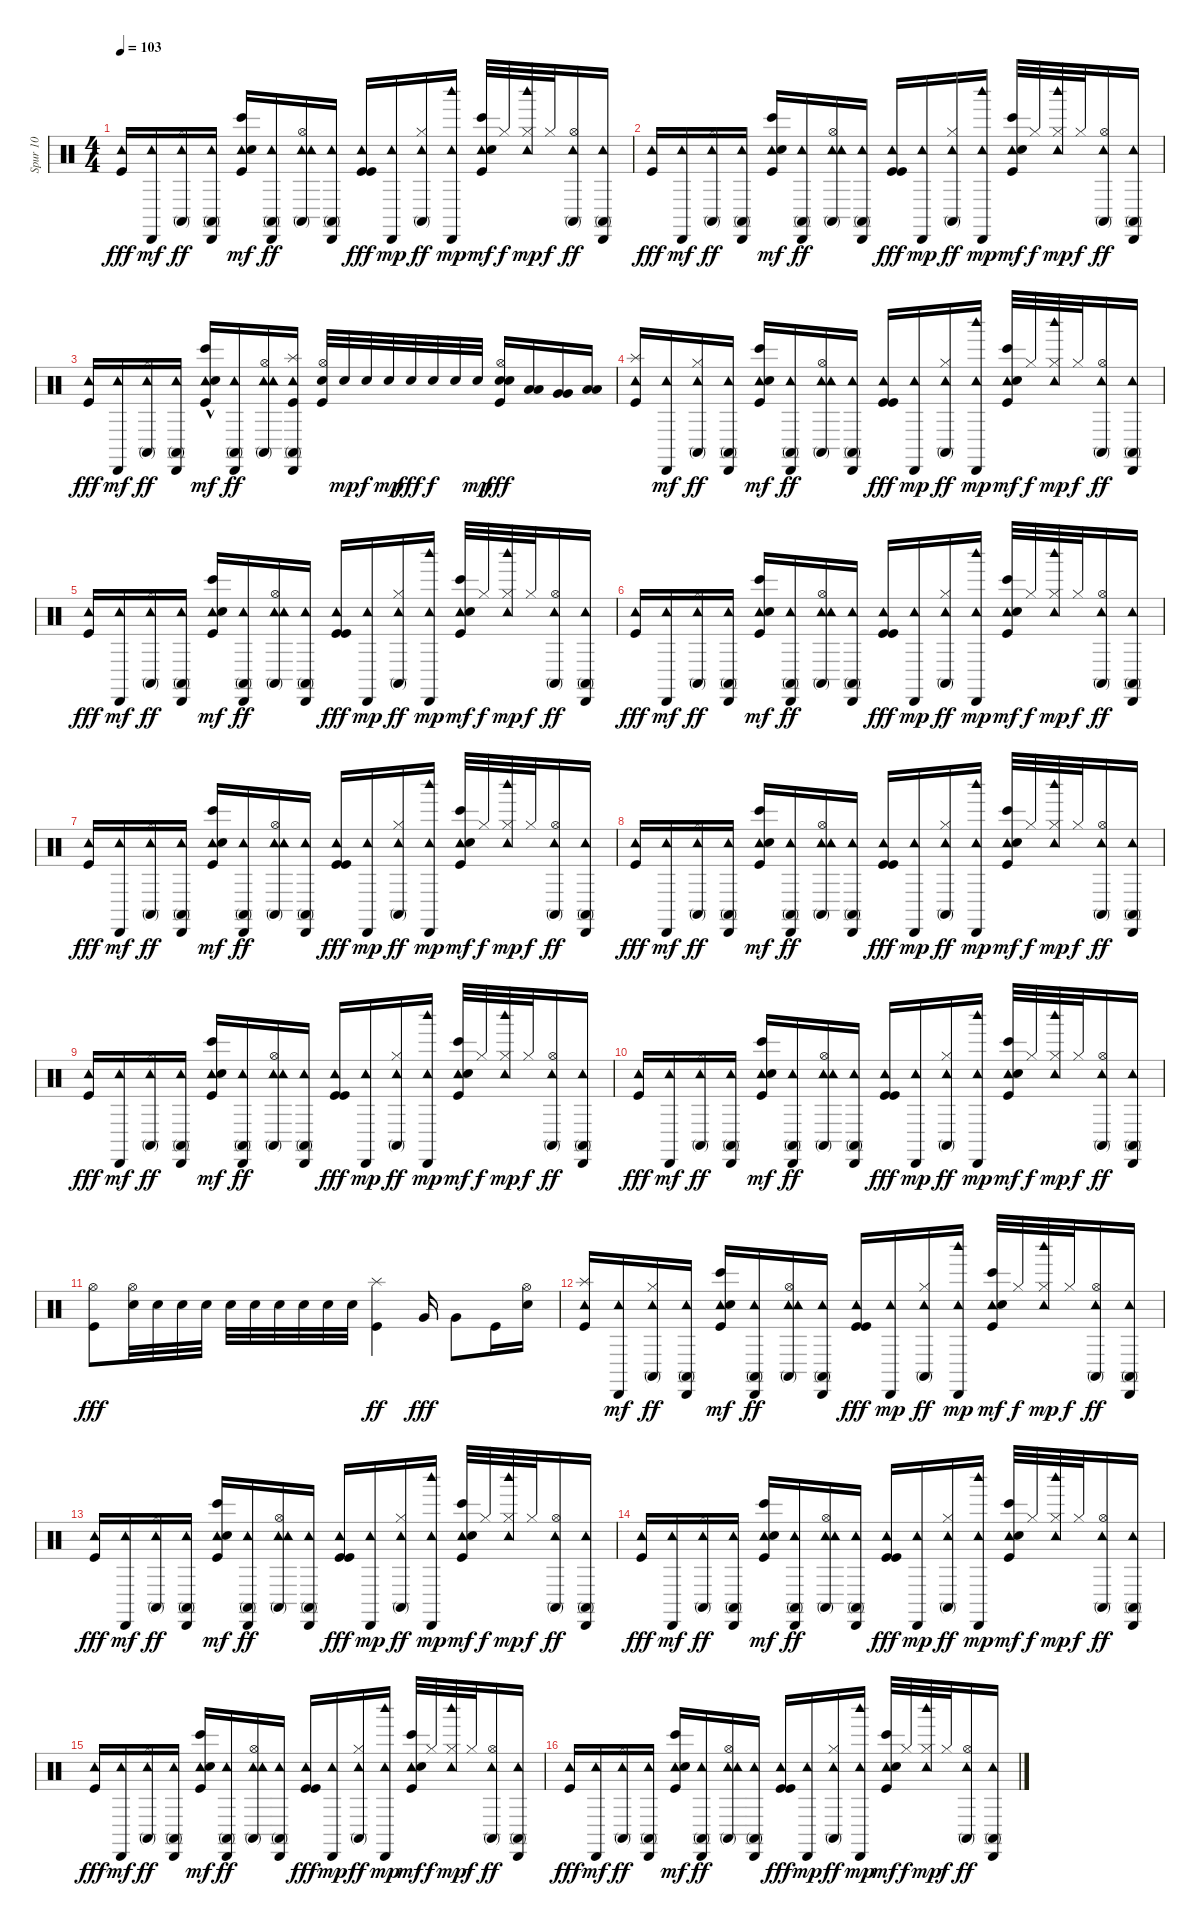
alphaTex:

\track ("Spur 10" "Spur 10") {instrument percussion}
\staff {score}
\articulation defaults
\ts (4 4)
\tempo 103
\clef neutral
\ks c
("Tambourine (hit)" "Kick (hit)").16{dy fff} ("Tambourine (hit)" "Cabasa (hit)").16{dy mf} ("Tambourine (hit)" "Hi-Hat (closed)" "Conga high (mute)").16{dy ff} ("Tambourine (hit)" "Cabasa (hit)" "Conga high (mute)").16 ("Tambourine (hit)" "Kick (hit)" "Electric Snare (hit)" "Bongo High (hit)").16{dy mf} ("Tambourine (hit)" "Cabasa (hit)" "Conga high (mute)").16{dy ff} ("Tambourine (hit)" "Hi-Hat (open)" "Tambourine (hit)" "Conga high (mute)").16 ("Tambourine (hit)" "Cabasa (hit)" "Conga high (mute)").16 ("Tambourine (hit)" "Kick (hit)" "Kick (hit)").16{dy fff} ("Cabasa (hit)" "Tambourine (hit)").16{dy mp} ("Hi-Hat (closed)" "Tambourine (hit)" "Conga high (mute)").16{dy ff} ("Cabasa (hit)" "Tambourine (hit)" "Woodblock high (hit)").16{dy mp} ("Tambourine (hit)" "Kick (hit)" "Electric Snare (hit)" "Bongo High (hit)").32{dy mf} "Hi-Hat (closed)".32{dy f} ("Hi-Hat (closed)" "Tambourine (hit)" "Woodblock high (hit)").32{dy mp} "Hi-Hat (closed)".32{dy f} ("Hi-Hat (open)" "Tambourine (hit)" "Conga high (mute)").16{dy ff} ("Tambourine (hit)" "Cabasa (hit)" "Conga high (mute)").16 |
("Tambourine (hit)" "Kick (hit)").16{dy fff} ("Tambourine (hit)" "Cabasa (hit)").16{dy mf} ("Tambourine (hit)" "Hi-Hat (closed)" "Conga high (mute)").16{dy ff} ("Tambourine (hit)" "Cabasa (hit)" "Conga high (mute)").16 ("Tambourine (hit)" "Kick (hit)" "Electric Snare (hit)" "Bongo High (hit)").16{dy mf} ("Tambourine (hit)" "Cabasa (hit)" "Conga high (mute)").16{dy ff} ("Tambourine (hit)" "Hi-Hat (open)" "Tambourine (hit)" "Conga high (mute)").16 ("Tambourine (hit)" "Cabasa (hit)" "Conga high (mute)").16 ("Tambourine (hit)" "Kick (hit)" "Kick (hit)").16{dy fff} ("Cabasa (hit)" "Tambourine (hit)").16{dy mp} ("Hi-Hat (closed)" "Tambourine (hit)" "Conga high (mute)").16{dy ff} ("Cabasa (hit)" "Tambourine (hit)" "Woodblock high (hit)").16{dy mp} ("Tambourine (hit)" "Kick (hit)" "Electric Snare (hit)" "Bongo High (hit)").32{dy mf} "Hi-Hat (closed)".32{dy f} ("Hi-Hat (closed)" "Tambourine (hit)" "Woodblock high (hit)").32{dy mp} "Hi-Hat (closed)".32{dy f} ("Hi-Hat (open)" "Tambourine (hit)" "Conga high (mute)").16{dy ff} ("Tambourine (hit)" "Cabasa (hit)" "Conga high (mute)").16 |
("Tambourine (hit)" "Kick (hit)").16{dy fff} ("Tambourine (hit)" "Cabasa (hit)").16{dy mf} ("Tambourine (hit)" "Hi-Hat (closed)" "Conga high (mute)").16{dy ff} ("Tambourine (hit)" "Cabasa (hit)" "Conga high (mute)").16 ("Tambourine (hit)" "Kick (hit)"{hac} "Electric Snare (hit)" "Bongo High (hit)").16{dy mf} ("Tambourine (hit)" "Cabasa (hit)" "Conga high (mute)").16{dy ff} ("Tambourine (hit)" "Hi-Hat (open)" "Tambourine (hit)" "Conga high (mute)").16 ("Tambourine (hit)" "Cabasa (hit)" "Conga high (mute)" "Kick (hit)" "Splash (hit)").16 ("Snare (hit) 2" "Kick (hit)" "Hi-Hat (open)").32 "Snare (hit) 2".32{dy mp} "Snare (hit) 2".32{dy f} "Snare (hit) 2".32{dy mp} "Snare (hit) 2".32{dy fff} "Snare (hit) 2".32{dy f} "Snare (hit) 2".32 "Snare (hit) 2".32{dy mp} ("Snare (hit) 2" "Snare (hit) 2" "Kick (hit)" "Hi-Hat (open)").16{dy fff} ("Low Tom (hit)" "Low Tom (hit)").16 ("Very Low Tom (hit)" "Very Low Tom (hit)").16 ("Low Floor Tom (hit)" "Low Floor Tom (hit)").16 |
("Splash (hit)" "Tambourine (hit)" "Kick (hit)").16 ("Tambourine (hit)" "Cabasa (hit)").16{dy mf} ("Tambourine (hit)" "Hi-Hat (closed)" "Conga high (mute)").16{dy ff} ("Tambourine (hit)" "Cabasa (hit)" "Conga high (mute)").16 ("Tambourine (hit)" "Kick (hit)" "Electric Snare (hit)" "Bongo High (hit)").16{dy mf} ("Tambourine (hit)" "Cabasa (hit)" "Conga high (mute)").16{dy ff} ("Tambourine (hit)" "Hi-Hat (open)" "Tambourine (hit)" "Conga high (mute)").16 ("Tambourine (hit)" "Cabasa (hit)" "Conga high (mute)").16 ("Tambourine (hit)" "Kick (hit)" "Kick (hit)").16{dy fff} ("Cabasa (hit)" "Tambourine (hit)").16{dy mp} ("Hi-Hat (closed)" "Tambourine (hit)" "Conga high (mute)").16{dy ff} ("Cabasa (hit)" "Tambourine (hit)" "Woodblock high (hit)").16{dy mp} ("Tambourine (hit)" "Kick (hit)" "Electric Snare (hit)" "Bongo High (hit)").32{dy mf} "Hi-Hat (closed)".32{dy f} ("Hi-Hat (closed)" "Tambourine (hit)" "Woodblock high (hit)").32{dy mp} "Hi-Hat (closed)".32{dy f} ("Hi-Hat (open)" "Tambourine (hit)" "Conga high (mute)").16{dy ff} ("Tambourine (hit)" "Cabasa (hit)" "Conga high (mute)").16 |
("Tambourine (hit)" "Kick (hit)").16{dy fff} ("Tambourine (hit)" "Cabasa (hit)").16{dy mf} ("Tambourine (hit)" "Hi-Hat (closed)" "Conga high (mute)").16{dy ff} ("Tambourine (hit)" "Cabasa (hit)" "Conga high (mute)").16 ("Tambourine (hit)" "Kick (hit)" "Electric Snare (hit)" "Bongo High (hit)").16{dy mf} ("Tambourine (hit)" "Cabasa (hit)" "Conga high (mute)").16{dy ff} ("Tambourine (hit)" "Hi-Hat (open)" "Tambourine (hit)" "Conga high (mute)").16 ("Tambourine (hit)" "Cabasa (hit)" "Conga high (mute)").16 ("Tambourine (hit)" "Kick (hit)" "Kick (hit)").16{dy fff} ("Cabasa (hit)" "Tambourine (hit)").16{dy mp} ("Hi-Hat (closed)" "Tambourine (hit)" "Conga high (mute)").16{dy ff} ("Cabasa (hit)" "Tambourine (hit)" "Woodblock high (hit)").16{dy mp} ("Tambourine (hit)" "Kick (hit)" "Electric Snare (hit)" "Bongo High (hit)").32{dy mf} "Hi-Hat (closed)".32{dy f} ("Hi-Hat (closed)" "Tambourine (hit)" "Woodblock high (hit)").32{dy mp} "Hi-Hat (closed)".32{dy f} ("Hi-Hat (open)" "Tambourine (hit)" "Conga high (mute)").16{dy ff} ("Tambourine (hit)" "Cabasa (hit)" "Conga high (mute)").16 |
("Tambourine (hit)" "Kick (hit)").16{dy fff} ("Tambourine (hit)" "Cabasa (hit)").16{dy mf} ("Tambourine (hit)" "Hi-Hat (closed)" "Conga high (mute)").16{dy ff} ("Tambourine (hit)" "Cabasa (hit)" "Conga high (mute)").16 ("Tambourine (hit)" "Kick (hit)" "Electric Snare (hit)" "Bongo High (hit)").16{dy mf} ("Tambourine (hit)" "Cabasa (hit)" "Conga high (mute)").16{dy ff} ("Tambourine (hit)" "Hi-Hat (open)" "Tambourine (hit)" "Conga high (mute)").16 ("Tambourine (hit)" "Cabasa (hit)" "Conga high (mute)").16 ("Tambourine (hit)" "Kick (hit)" "Kick (hit)").16{dy fff} ("Cabasa (hit)" "Tambourine (hit)").16{dy mp} ("Hi-Hat (closed)" "Tambourine (hit)" "Conga high (mute)").16{dy ff} ("Cabasa (hit)" "Tambourine (hit)" "Woodblock high (hit)").16{dy mp} ("Tambourine (hit)" "Kick (hit)" "Electric Snare (hit)" "Bongo High (hit)").32{dy mf} "Hi-Hat (closed)".32{dy f} ("Hi-Hat (closed)" "Tambourine (hit)" "Woodblock high (hit)").32{dy mp} "Hi-Hat (closed)".32{dy f} ("Hi-Hat (open)" "Tambourine (hit)" "Conga high (mute)").16{dy ff} ("Tambourine (hit)" "Cabasa (hit)" "Conga high (mute)").16 |
("Tambourine (hit)" "Kick (hit)").16{dy fff} ("Tambourine (hit)" "Cabasa (hit)").16{dy mf} ("Tambourine (hit)" "Hi-Hat (closed)" "Conga high (mute)").16{dy ff} ("Tambourine (hit)" "Cabasa (hit)" "Conga high (mute)").16 ("Tambourine (hit)" "Kick (hit)" "Electric Snare (hit)" "Bongo High (hit)").16{dy mf} ("Tambourine (hit)" "Cabasa (hit)" "Conga high (mute)").16{dy ff} ("Tambourine (hit)" "Hi-Hat (open)" "Tambourine (hit)" "Conga high (mute)").16 ("Tambourine (hit)" "Cabasa (hit)" "Conga high (mute)").16 ("Tambourine (hit)" "Kick (hit)" "Kick (hit)").16{dy fff} ("Cabasa (hit)" "Tambourine (hit)").16{dy mp} ("Hi-Hat (closed)" "Tambourine (hit)" "Conga high (mute)").16{dy ff} ("Cabasa (hit)" "Tambourine (hit)" "Woodblock high (hit)").16{dy mp} ("Tambourine (hit)" "Kick (hit)" "Electric Snare (hit)" "Bongo High (hit)").32{dy mf} "Hi-Hat (closed)".32{dy f} ("Hi-Hat (closed)" "Tambourine (hit)" "Woodblock high (hit)").32{dy mp} "Hi-Hat (closed)".32{dy f} ("Hi-Hat (open)" "Tambourine (hit)" "Conga high (mute)").16{dy ff} ("Tambourine (hit)" "Cabasa (hit)" "Conga high (mute)").16 |
("Tambourine (hit)" "Kick (hit)").16{dy fff} ("Tambourine (hit)" "Cabasa (hit)").16{dy mf} ("Tambourine (hit)" "Hi-Hat (closed)" "Conga high (mute)").16{dy ff} ("Tambourine (hit)" "Cabasa (hit)" "Conga high (mute)").16 ("Tambourine (hit)" "Kick (hit)" "Electric Snare (hit)" "Bongo High (hit)").16{dy mf} ("Tambourine (hit)" "Cabasa (hit)" "Conga high (mute)").16{dy ff} ("Tambourine (hit)" "Hi-Hat (open)" "Tambourine (hit)" "Conga high (mute)").16 ("Tambourine (hit)" "Cabasa (hit)" "Conga high (mute)").16 ("Tambourine (hit)" "Kick (hit)" "Kick (hit)").16{dy fff} ("Cabasa (hit)" "Tambourine (hit)").16{dy mp} ("Hi-Hat (closed)" "Tambourine (hit)" "Conga high (mute)").16{dy ff} ("Cabasa (hit)" "Tambourine (hit)" "Woodblock high (hit)").16{dy mp} ("Tambourine (hit)" "Kick (hit)" "Electric Snare (hit)" "Bongo High (hit)").32{dy mf} "Hi-Hat (closed)".32{dy f} ("Hi-Hat (closed)" "Tambourine (hit)" "Woodblock high (hit)").32{dy mp} "Hi-Hat (closed)".32{dy f} ("Hi-Hat (open)" "Tambourine (hit)" "Conga high (mute)").16{dy ff} ("Tambourine (hit)" "Cabasa (hit)" "Conga high (mute)").16 |
("Tambourine (hit)" "Kick (hit)").16{dy fff} ("Tambourine (hit)" "Cabasa (hit)").16{dy mf} ("Tambourine (hit)" "Hi-Hat (closed)" "Conga high (mute)").16{dy ff} ("Tambourine (hit)" "Cabasa (hit)" "Conga high (mute)").16 ("Tambourine (hit)" "Kick (hit)" "Electric Snare (hit)" "Bongo High (hit)").16{dy mf} ("Tambourine (hit)" "Cabasa (hit)" "Conga high (mute)").16{dy ff} ("Tambourine (hit)" "Hi-Hat (open)" "Tambourine (hit)" "Conga high (mute)").16 ("Tambourine (hit)" "Cabasa (hit)" "Conga high (mute)").16 ("Tambourine (hit)" "Kick (hit)" "Kick (hit)").16{dy fff} ("Cabasa (hit)" "Tambourine (hit)").16{dy mp} ("Hi-Hat (closed)" "Tambourine (hit)" "Conga high (mute)").16{dy ff} ("Cabasa (hit)" "Tambourine (hit)" "Woodblock high (hit)").16{dy mp} ("Tambourine (hit)" "Kick (hit)" "Electric Snare (hit)" "Bongo High (hit)").32{dy mf} "Hi-Hat (closed)".32{dy f} ("Hi-Hat (closed)" "Tambourine (hit)" "Woodblock high (hit)").32{dy mp} "Hi-Hat (closed)".32{dy f} ("Hi-Hat (open)" "Tambourine (hit)" "Conga high (mute)").16{dy ff} ("Tambourine (hit)" "Cabasa (hit)" "Conga high (mute)").16 |
("Tambourine (hit)" "Kick (hit)").16{dy fff} ("Tambourine (hit)" "Cabasa (hit)").16{dy mf} ("Tambourine (hit)" "Hi-Hat (closed)" "Conga high (mute)").16{dy ff} ("Tambourine (hit)" "Cabasa (hit)" "Conga high (mute)").16 ("Tambourine (hit)" "Kick (hit)" "Electric Snare (hit)" "Bongo High (hit)").16{dy mf} ("Tambourine (hit)" "Cabasa (hit)" "Conga high (mute)").16{dy ff} ("Tambourine (hit)" "Hi-Hat (open)" "Tambourine (hit)" "Conga high (mute)").16 ("Tambourine (hit)" "Cabasa (hit)" "Conga high (mute)").16 ("Tambourine (hit)" "Kick (hit)" "Kick (hit)").16{dy fff} ("Cabasa (hit)" "Tambourine (hit)").16{dy mp} ("Hi-Hat (closed)" "Tambourine (hit)" "Conga high (mute)").16{dy ff} ("Cabasa (hit)" "Tambourine (hit)" "Woodblock high (hit)").16{dy mp} ("Tambourine (hit)" "Kick (hit)" "Electric Snare (hit)" "Bongo High (hit)").32{dy mf} "Hi-Hat (closed)".32{dy f} ("Hi-Hat (closed)" "Tambourine (hit)" "Woodblock high (hit)").32{dy mp} "Hi-Hat (closed)".32{dy f} ("Hi-Hat (open)" "Tambourine (hit)" "Conga high (mute)").16{dy ff} ("Tambourine (hit)" "Cabasa (hit)" "Conga high (mute)").16 |
("Kick (hit)" "Hi-Hat (open)").8{dy fff} ("Hi-Hat (open)" "Electric Snare (hit)").32 "Electric Snare (hit)".32 "Electric Snare (hit)".32 "Electric Snare (hit)".32 "Electric Snare (hit)".32 "Electric Snare (hit)".32 "Electric Snare (hit)".32 "Electric Snare (hit)".32 "Electric Snare (hit)".32 "Electric Snare (hit)".32 ("Kick (hit)" "Splash (hit)").4{dy ff} "Very Low Tom (hit)".16{dy fff} "Very Low Tom (hit)".8 "Kick (hit)".16 ("Electric Snare (hit)" "Hi-Hat (open)").16 |
("Splash (hit)" "Tambourine (hit)" "Kick (hit)").16 ("Tambourine (hit)" "Cabasa (hit)").16{dy mf} ("Tambourine (hit)" "Hi-Hat (closed)" "Conga high (mute)").16{dy ff} ("Tambourine (hit)" "Cabasa (hit)" "Conga high (mute)").16 ("Tambourine (hit)" "Kick (hit)" "Electric Snare (hit)" "Bongo High (hit)").16{dy mf} ("Tambourine (hit)" "Cabasa (hit)" "Conga high (mute)").16{dy ff} ("Tambourine (hit)" "Hi-Hat (open)" "Tambourine (hit)" "Conga high (mute)").16 ("Tambourine (hit)" "Cabasa (hit)" "Conga high (mute)").16 ("Tambourine (hit)" "Kick (hit)" "Kick (hit)").16{dy fff} ("Cabasa (hit)" "Tambourine (hit)").16{dy mp} ("Hi-Hat (closed)" "Tambourine (hit)" "Conga high (mute)").16{dy ff} ("Cabasa (hit)" "Tambourine (hit)" "Woodblock high (hit)").16{dy mp} ("Tambourine (hit)" "Kick (hit)" "Electric Snare (hit)" "Bongo High (hit)").32{dy mf} "Hi-Hat (closed)".32{dy f} ("Hi-Hat (closed)" "Tambourine (hit)" "Woodblock high (hit)").32{dy mp} "Hi-Hat (closed)".32{dy f} ("Hi-Hat (open)" "Tambourine (hit)" "Conga high (mute)").16{dy ff} ("Tambourine (hit)" "Cabasa (hit)" "Conga high (mute)").16 |
("Tambourine (hit)" "Kick (hit)").16{dy fff} ("Tambourine (hit)" "Cabasa (hit)").16{dy mf} ("Tambourine (hit)" "Hi-Hat (closed)" "Conga high (mute)").16{dy ff} ("Tambourine (hit)" "Cabasa (hit)" "Conga high (mute)").16 ("Tambourine (hit)" "Kick (hit)" "Electric Snare (hit)" "Bongo High (hit)").16{dy mf} ("Tambourine (hit)" "Cabasa (hit)" "Conga high (mute)").16{dy ff} ("Tambourine (hit)" "Hi-Hat (open)" "Tambourine (hit)" "Conga high (mute)").16 ("Tambourine (hit)" "Cabasa (hit)" "Conga high (mute)").16 ("Tambourine (hit)" "Kick (hit)" "Kick (hit)").16{dy fff} ("Cabasa (hit)" "Tambourine (hit)").16{dy mp} ("Hi-Hat (closed)" "Tambourine (hit)" "Conga high (mute)").16{dy ff} ("Cabasa (hit)" "Tambourine (hit)" "Woodblock high (hit)").16{dy mp} ("Tambourine (hit)" "Kick (hit)" "Electric Snare (hit)" "Bongo High (hit)").32{dy mf} "Hi-Hat (closed)".32{dy f} ("Hi-Hat (closed)" "Tambourine (hit)" "Woodblock high (hit)").32{dy mp} "Hi-Hat (closed)".32{dy f} ("Hi-Hat (open)" "Tambourine (hit)" "Conga high (mute)").16{dy ff} ("Tambourine (hit)" "Cabasa (hit)" "Conga high (mute)").16 |
("Tambourine (hit)" "Kick (hit)").16{dy fff} ("Tambourine (hit)" "Cabasa (hit)").16{dy mf} ("Tambourine (hit)" "Hi-Hat (closed)" "Conga high (mute)").16{dy ff} ("Tambourine (hit)" "Cabasa (hit)" "Conga high (mute)").16 ("Tambourine (hit)" "Kick (hit)" "Electric Snare (hit)" "Bongo High (hit)").16{dy mf} ("Tambourine (hit)" "Cabasa (hit)" "Conga high (mute)").16{dy ff} ("Tambourine (hit)" "Hi-Hat (open)" "Tambourine (hit)" "Conga high (mute)").16 ("Tambourine (hit)" "Cabasa (hit)" "Conga high (mute)").16 ("Tambourine (hit)" "Kick (hit)" "Kick (hit)").16{dy fff} ("Cabasa (hit)" "Tambourine (hit)").16{dy mp} ("Hi-Hat (closed)" "Tambourine (hit)" "Conga high (mute)").16{dy ff} ("Cabasa (hit)" "Tambourine (hit)" "Woodblock high (hit)").16{dy mp} ("Tambourine (hit)" "Kick (hit)" "Electric Snare (hit)" "Bongo High (hit)").32{dy mf} "Hi-Hat (closed)".32{dy f} ("Hi-Hat (closed)" "Tambourine (hit)" "Woodblock high (hit)").32{dy mp} "Hi-Hat (closed)".32{dy f} ("Hi-Hat (open)" "Tambourine (hit)" "Conga high (mute)").16{dy ff} ("Tambourine (hit)" "Cabasa (hit)" "Conga high (mute)").16 |
("Tambourine (hit)" "Kick (hit)").16{dy fff} ("Tambourine (hit)" "Cabasa (hit)").16{dy mf} ("Tambourine (hit)" "Hi-Hat (closed)" "Conga high (mute)").16{dy ff} ("Tambourine (hit)" "Cabasa (hit)" "Conga high (mute)").16 ("Tambourine (hit)" "Kick (hit)" "Electric Snare (hit)" "Bongo High (hit)").16{dy mf} ("Tambourine (hit)" "Cabasa (hit)" "Conga high (mute)").16{dy ff} ("Tambourine (hit)" "Hi-Hat (open)" "Tambourine (hit)" "Conga high (mute)").16 ("Tambourine (hit)" "Cabasa (hit)" "Conga high (mute)").16 ("Tambourine (hit)" "Kick (hit)" "Kick (hit)").16{dy fff} ("Cabasa (hit)" "Tambourine (hit)").16{dy mp} ("Hi-Hat (closed)" "Tambourine (hit)" "Conga high (mute)").16{dy ff} ("Cabasa (hit)" "Tambourine (hit)" "Woodblock high (hit)").16{dy mp} ("Tambourine (hit)" "Kick (hit)" "Electric Snare (hit)" "Bongo High (hit)").32{dy mf} "Hi-Hat (closed)".32{dy f} ("Hi-Hat (closed)" "Tambourine (hit)" "Woodblock high (hit)").32{dy mp} "Hi-Hat (closed)".32{dy f} ("Hi-Hat (open)" "Tambourine (hit)" "Conga high (mute)").16{dy ff} ("Tambourine (hit)" "Cabasa (hit)" "Conga high (mute)").16 |
("Tambourine (hit)" "Kick (hit)").16{dy fff} ("Tambourine (hit)" "Cabasa (hit)").16{dy mf} ("Tambourine (hit)" "Hi-Hat (closed)" "Conga high (mute)").16{dy ff} ("Tambourine (hit)" "Cabasa (hit)" "Conga high (mute)").16 ("Tambourine (hit)" "Kick (hit)" "Electric Snare (hit)" "Bongo High (hit)").16{dy mf} ("Tambourine (hit)" "Cabasa (hit)" "Conga high (mute)").16{dy ff} ("Tambourine (hit)" "Hi-Hat (open)" "Tambourine (hit)" "Conga high (mute)").16 ("Tambourine (hit)" "Cabasa (hit)" "Conga high (mute)").16 ("Tambourine (hit)" "Kick (hit)" "Kick (hit)").16{dy fff} ("Cabasa (hit)" "Tambourine (hit)").16{dy mp} ("Hi-Hat (closed)" "Tambourine (hit)" "Conga high (mute)").16{dy ff} ("Cabasa (hit)" "Tambourine (hit)" "Woodblock high (hit)").16{dy mp} ("Tambourine (hit)" "Kick (hit)" "Electric Snare (hit)" "Bongo High (hit)").32{dy mf} "Hi-Hat (closed)".32{dy f} ("Hi-Hat (closed)" "Tambourine (hit)" "Woodblock high (hit)").32{dy mp} "Hi-Hat (closed)".32{dy f} ("Hi-Hat (open)" "Tambourine (hit)" "Conga high (mute)").16{dy ff} ("Tambourine (hit)" "Cabasa (hit)" "Conga high (mute)").16
